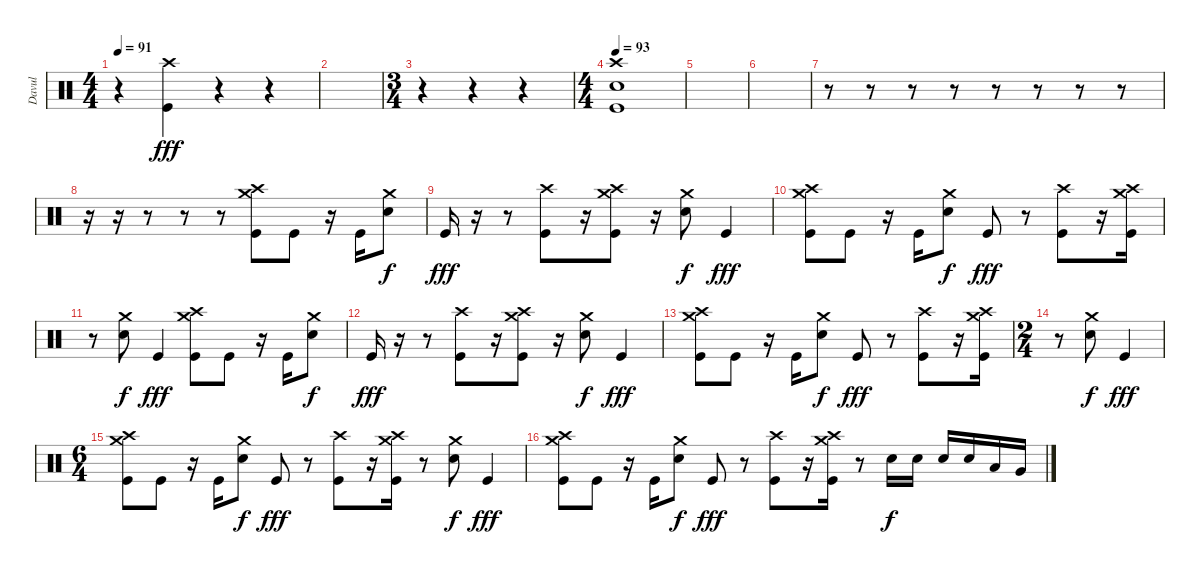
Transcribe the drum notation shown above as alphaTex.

\track ("Davul" "Davul") {instrument percussion}
\staff {score}
\articulation defaults
\ts (4 4)
\tempo 91
\clef neutral
\ks c
r.4{dy f} ("Crash high (hit)" "Kick (hit)").4{dy fff} r.4 r.4 |
|
\ts (3 4)
r.4 r.4 r.4 |
\ts (4 4)
\tempo 93
("Crash high (hit)" "Snare (hit) 2" "Kick (hit)").1 |
|
|
r.8 r.8 r.8 r.8 r.8 r.8 r.8 r.8 |
r.16 r.16 r.8 r.8 r.8 ("Crash medium (hit)" "Crash high (hit)" "Kick (hit)").8 "Kick (hit)".8 r.16 "Kick (hit)".16 ("Crash medium (hit)" "Snare (hit) 2").8{dy f} |
"Kick (hit)".16{dy fff} r.16 r.8 ("Crash high (hit)" "Kick (hit)").8 r.16 ("Crash high (hit)" "Crash medium (hit)" "Kick (hit)").8 r.16 ("Crash medium (hit)" "Snare (hit) 2").8{dy f} "Kick (hit)".4{dy fff} |
("Crash medium (hit)" "Crash high (hit)" "Kick (hit)").8 "Kick (hit)".8 r.16 "Kick (hit)".16 ("Crash medium (hit)" "Snare (hit) 2").8{dy f} "Kick (hit)".8{dy fff} r.8 ("Crash high (hit)" "Kick (hit)").8 r.16 ("Crash high (hit)" "Crash medium (hit)" "Kick (hit)").16 |
r.8 ("Crash medium (hit)" "Snare (hit) 2").8{dy f} "Kick (hit)".4{dy fff} ("Crash medium (hit)" "Crash high (hit)" "Kick (hit)").8 "Kick (hit)".8 r.16 "Kick (hit)".16 ("Crash medium (hit)" "Snare (hit) 2").8{dy f} |
"Kick (hit)".16{dy fff} r.16 r.8 ("Crash high (hit)" "Kick (hit)").8 r.16 ("Crash high (hit)" "Crash medium (hit)" "Kick (hit)").8 r.16 ("Crash medium (hit)" "Snare (hit) 2").8{dy f} "Kick (hit)".4{dy fff} |
("Crash medium (hit)" "Crash high (hit)" "Kick (hit)").8 "Kick (hit)".8 r.16 "Kick (hit)".16 ("Crash medium (hit)" "Snare (hit) 2").8{dy f} "Kick (hit)".8{dy fff} r.8 ("Crash high (hit)" "Kick (hit)").8 r.16 ("Crash high (hit)" "Crash medium (hit)" "Kick (hit)").16 |
\ts (2 4)
r.8 ("Crash medium (hit)" "Snare (hit) 2").8{dy f} "Kick (hit)".4{dy fff} |
\ts (6 4)
("Crash medium (hit)" "Crash high (hit)" "Kick (hit)").8 "Kick (hit)".8 r.16 "Kick (hit)".16 ("Crash medium (hit)" "Snare (hit) 2").8{dy f} "Kick (hit)".8{dy fff} r.8 ("Crash high (hit)" "Kick (hit)").8 r.16 ("Crash high (hit)" "Crash medium (hit)" "Kick (hit)").16 r.8 ("Crash medium (hit)" "Snare (hit) 2").8{dy f} "Kick (hit)".4{dy fff} |
("Crash medium (hit)" "Crash high (hit)" "Kick (hit)").8 "Kick (hit)".8 r.16 "Kick (hit)".16 ("Crash medium (hit)" "Snare (hit) 2").8{dy f} "Kick (hit)".8{dy fff} r.8 ("Crash high (hit)" "Kick (hit)").8 r.16 ("Crash high (hit)" "Crash medium (hit)" "Kick (hit)").16 r.8 "Snare (hit) 2".16{dy f} "Snare (hit) 2".16 "Snare (hit) 2".16 "Snare (hit) 2".16 "Low Tom (hit)".16 "Very Low Tom (hit)".16
